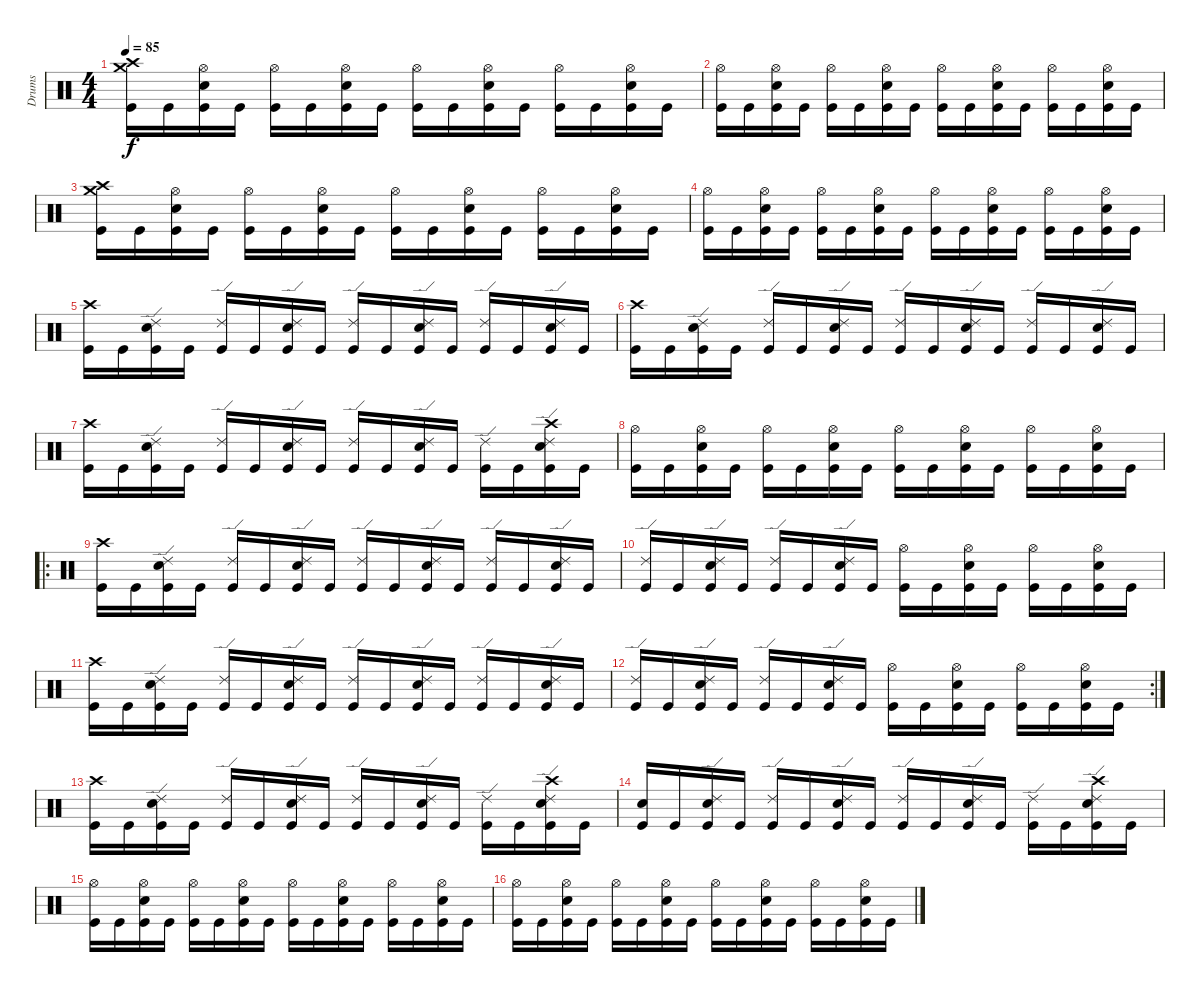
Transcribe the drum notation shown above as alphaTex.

\track ("Drums" "Drums") {instrument percussion}
\staff {score}
\articulation defaults
\ts (4 4)
\tempo 85
\clef neutral
\ks c
("Crash high (hit)" "Crash medium (hit)" "Kick (hit)").16{dy f} "Kick (hit)".16 ("Hi-Hat (open)" "Snare (hit) 2" "Kick (hit)").16 "Kick (hit)".16 ("Hi-Hat (open)" "Kick (hit)").16 "Kick (hit)".16 ("Hi-Hat (open)" "Snare (hit) 2" "Kick (hit)").16 "Kick (hit)".16 ("Hi-Hat (open)" "Kick (hit)").16 "Kick (hit)".16 ("Hi-Hat (open)" "Snare (hit) 2" "Kick (hit)").16 "Kick (hit)".16 ("Hi-Hat (open)" "Kick (hit)").16 "Kick (hit)".16 ("Hi-Hat (open)" "Snare (hit) 2" "Kick (hit)").16 "Kick (hit)".16 |
("Hi-Hat (open)" "Kick (hit)").16 "Kick (hit)".16 ("Hi-Hat (open)" "Snare (hit) 2" "Kick (hit)").16 "Kick (hit)".16 ("Hi-Hat (open)" "Kick (hit)").16 "Kick (hit)".16 ("Hi-Hat (open)" "Snare (hit) 2" "Kick (hit)").16 "Kick (hit)".16 ("Hi-Hat (open)" "Kick (hit)").16 "Kick (hit)".16 ("Hi-Hat (open)" "Snare (hit) 2" "Kick (hit)").16 "Kick (hit)".16 ("Hi-Hat (open)" "Kick (hit)").16 "Kick (hit)".16 ("Hi-Hat (open)" "Snare (hit) 2" "Kick (hit)").16 "Kick (hit)".16 |
("Crash high (hit)" "Crash medium (hit)" "Kick (hit)").16 "Kick (hit)".16 ("Hi-Hat (open)" "Snare (hit) 2" "Kick (hit)").16 "Kick (hit)".16 ("Hi-Hat (open)" "Kick (hit)").16 "Kick (hit)".16 ("Hi-Hat (open)" "Snare (hit) 2" "Kick (hit)").16 "Kick (hit)".16 ("Hi-Hat (open)" "Kick (hit)").16 "Kick (hit)".16 ("Hi-Hat (open)" "Snare (hit) 2" "Kick (hit)").16 "Kick (hit)".16 ("Hi-Hat (open)" "Kick (hit)").16 "Kick (hit)".16 ("Hi-Hat (open)" "Snare (hit) 2" "Kick (hit)").16 "Kick (hit)".16 |
("Hi-Hat (open)" "Kick (hit)").16 "Kick (hit)".16 ("Hi-Hat (open)" "Snare (hit) 2" "Kick (hit)").16 "Kick (hit)".16 ("Hi-Hat (open)" "Kick (hit)").16 "Kick (hit)".16 ("Hi-Hat (open)" "Snare (hit) 2" "Kick (hit)").16 "Kick (hit)".16 ("Hi-Hat (open)" "Kick (hit)").16 "Kick (hit)".16 ("Hi-Hat (open)" "Snare (hit) 2" "Kick (hit)").16 "Kick (hit)".16 ("Hi-Hat (open)" "Kick (hit)").16 "Kick (hit)".16 ("Hi-Hat (open)" "Snare (hit) 2" "Kick (hit)").16 "Kick (hit)".16 |
("Crash high (hit)" "Kick (hit)").16 "Kick (hit)".16 ("Ride (edge) 2" "Snare (hit) 2" "Kick (hit)").16 "Kick (hit)".16 ("Ride (edge) 2" "Kick (hit)").16 "Kick (hit)".16 ("Ride (edge) 2" "Snare (hit) 2" "Kick (hit)").16 "Kick (hit)".16 ("Ride (edge) 2" "Kick (hit)").16 "Kick (hit)".16 ("Ride (edge) 2" "Snare (hit) 2" "Kick (hit)").16 "Kick (hit)".16 ("Ride (edge) 2" "Kick (hit)").16 "Kick (hit)".16 ("Ride (edge) 2" "Snare (hit) 2" "Kick (hit)").16 "Kick (hit)".16 |
("Crash high (hit)" "Kick (hit)").16 "Kick (hit)".16 ("Ride (edge) 2" "Snare (hit) 2" "Kick (hit)").16 "Kick (hit)".16 ("Ride (edge) 2" "Kick (hit)").16 "Kick (hit)".16 ("Ride (edge) 2" "Snare (hit) 2" "Kick (hit)").16 "Kick (hit)".16 ("Ride (edge) 2" "Kick (hit)").16 "Kick (hit)".16 ("Ride (edge) 2" "Snare (hit) 2" "Kick (hit)").16 "Kick (hit)".16 ("Ride (edge) 2" "Kick (hit)").16 "Kick (hit)".16 ("Ride (edge) 2" "Snare (hit) 2" "Kick (hit)").16 "Kick (hit)".16 |
("Crash high (hit)" "Kick (hit)").16 "Kick (hit)".16 ("Ride (edge) 2" "Snare (hit) 2" "Kick (hit)").16 "Kick (hit)".16 ("Ride (edge) 2" "Kick (hit)").16 "Kick (hit)".16 ("Ride (edge) 2" "Snare (hit) 2" "Kick (hit)").16 "Kick (hit)".16 ("Ride (edge) 2" "Kick (hit)").16 "Kick (hit)".16 ("Ride (edge) 2" "Snare (hit) 2" "Kick (hit)").16 "Kick (hit)".16 ("Ride (edge) 2" "Kick (hit)").16 "Kick (hit)".16 ("Crash high (hit)" "Ride (edge) 2" "Snare (hit) 2" "Kick (hit)").16 "Kick (hit)".16 |
("Hi-Hat (open)" "Kick (hit)").16 "Kick (hit)".16 ("Hi-Hat (open)" "Snare (hit) 2" "Kick (hit)").16 "Kick (hit)".16 ("Hi-Hat (open)" "Kick (hit)").16 "Kick (hit)".16 ("Hi-Hat (open)" "Snare (hit) 2" "Kick (hit)").16 "Kick (hit)".16 ("Hi-Hat (open)" "Kick (hit)").16 "Kick (hit)".16 ("Hi-Hat (open)" "Snare (hit) 2" "Kick (hit)").16 "Kick (hit)".16 ("Hi-Hat (open)" "Kick (hit)").16 "Kick (hit)".16 ("Hi-Hat (open)" "Snare (hit) 2" "Kick (hit)").16 "Kick (hit)".16 |
\ro
("Crash high (hit)" "Kick (hit)").16 "Kick (hit)".16 ("Ride (edge) 2" "Snare (hit) 2" "Kick (hit)").16 "Kick (hit)".16 ("Ride (edge) 2" "Kick (hit)").16 "Kick (hit)".16 ("Ride (edge) 2" "Snare (hit) 2" "Kick (hit)").16 "Kick (hit)".16 ("Ride (edge) 2" "Kick (hit)").16 "Kick (hit)".16 ("Ride (edge) 2" "Snare (hit) 2" "Kick (hit)").16 "Kick (hit)".16 ("Ride (edge) 2" "Kick (hit)").16 "Kick (hit)".16 ("Ride (edge) 2" "Snare (hit) 2" "Kick (hit)").16 "Kick (hit)".16 |
("Ride (edge) 2" "Kick (hit)").16 "Kick (hit)".16 ("Ride (edge) 2" "Snare (hit) 2" "Kick (hit)").16 "Kick (hit)".16 ("Ride (edge) 2" "Kick (hit)").16 "Kick (hit)".16 ("Ride (edge) 2" "Snare (hit) 2" "Kick (hit)").16 "Kick (hit)".16 ("Hi-Hat (open)" "Kick (hit)").16 "Kick (hit)".16 ("Hi-Hat (open)" "Snare (hit) 2" "Kick (hit)").16 "Kick (hit)".16 ("Hi-Hat (open)" "Kick (hit)").16 "Kick (hit)".16 ("Hi-Hat (open)" "Snare (hit) 2" "Kick (hit)").16 "Kick (hit)".16 |
("Crash high (hit)" "Kick (hit)").16 "Kick (hit)".16 ("Ride (edge) 2" "Snare (hit) 2" "Kick (hit)").16 "Kick (hit)".16 ("Ride (edge) 2" "Kick (hit)").16 "Kick (hit)".16 ("Ride (edge) 2" "Snare (hit) 2" "Kick (hit)").16 "Kick (hit)".16 ("Ride (edge) 2" "Kick (hit)").16 "Kick (hit)".16 ("Ride (edge) 2" "Snare (hit) 2" "Kick (hit)").16 "Kick (hit)".16 ("Ride (edge) 2" "Kick (hit)").16 "Kick (hit)".16 ("Ride (edge) 2" "Snare (hit) 2" "Kick (hit)").16 "Kick (hit)".16 |
\rc 2
("Ride (edge) 2" "Kick (hit)").16 "Kick (hit)".16 ("Ride (edge) 2" "Snare (hit) 2" "Kick (hit)").16 "Kick (hit)".16 ("Ride (edge) 2" "Kick (hit)").16 "Kick (hit)".16 ("Ride (edge) 2" "Snare (hit) 2" "Kick (hit)").16 "Kick (hit)".16 ("Hi-Hat (open)" "Kick (hit)").16 "Kick (hit)".16 ("Hi-Hat (open)" "Snare (hit) 2" "Kick (hit)").16 "Kick (hit)".16 ("Hi-Hat (open)" "Kick (hit)").16 "Kick (hit)".16 ("Hi-Hat (open)" "Snare (hit) 2" "Kick (hit)").16 "Kick (hit)".16 |
("Crash high (hit)" "Kick (hit)").16 "Kick (hit)".16 ("Ride (edge) 2" "Snare (hit) 2" "Kick (hit)").16 "Kick (hit)".16 ("Ride (edge) 2" "Kick (hit)").16 "Kick (hit)".16 ("Ride (edge) 2" "Snare (hit) 2" "Kick (hit)").16 "Kick (hit)".16 ("Ride (edge) 2" "Kick (hit)").16 "Kick (hit)".16 ("Ride (edge) 2" "Snare (hit) 2" "Kick (hit)").16 "Kick (hit)".16 ("Ride (edge) 2" "Kick (hit)").16 "Kick (hit)".16 ("Crash high (hit)" "Ride (edge) 2" "Snare (hit) 2" "Kick (hit)").16 "Kick (hit)".16 |
("Snare (hit) 2" "Kick (hit)").16 "Kick (hit)".16 ("Ride (edge) 2" "Snare (hit) 2" "Kick (hit)").16 "Kick (hit)".16 ("Ride (edge) 2" "Kick (hit)").16 "Kick (hit)".16 ("Ride (edge) 2" "Snare (hit) 2" "Kick (hit)").16 "Kick (hit)".16 ("Ride (edge) 2" "Kick (hit)").16 "Kick (hit)".16 ("Ride (edge) 2" "Snare (hit) 2" "Kick (hit)").16 "Kick (hit)".16 ("Ride (edge) 2" "Kick (hit)").16 "Kick (hit)".16 ("Crash high (hit)" "Ride (edge) 2" "Snare (hit) 2" "Kick (hit)").16 "Kick (hit)".16 |
("Hi-Hat (open)" "Kick (hit)").16 "Kick (hit)".16 ("Hi-Hat (open)" "Snare (hit) 2" "Kick (hit)").16 "Kick (hit)".16 ("Hi-Hat (open)" "Kick (hit)").16 "Kick (hit)".16 ("Hi-Hat (open)" "Snare (hit) 2" "Kick (hit)").16 "Kick (hit)".16 ("Hi-Hat (open)" "Kick (hit)").16 "Kick (hit)".16 ("Hi-Hat (open)" "Snare (hit) 2" "Kick (hit)").16 "Kick (hit)".16 ("Hi-Hat (open)" "Kick (hit)").16 "Kick (hit)".16 ("Hi-Hat (open)" "Snare (hit) 2" "Kick (hit)").16 "Kick (hit)".16 |
("Hi-Hat (open)" "Kick (hit)").16 "Kick (hit)".16 ("Hi-Hat (open)" "Snare (hit) 2" "Kick (hit)").16 "Kick (hit)".16 ("Hi-Hat (open)" "Kick (hit)").16 "Kick (hit)".16 ("Hi-Hat (open)" "Snare (hit) 2" "Kick (hit)").16 "Kick (hit)".16 ("Hi-Hat (open)" "Kick (hit)").16 "Kick (hit)".16 ("Hi-Hat (open)" "Snare (hit) 2" "Kick (hit)").16 "Kick (hit)".16 ("Hi-Hat (open)" "Kick (hit)").16 "Kick (hit)".16 ("Hi-Hat (open)" "Snare (hit) 2" "Kick (hit)").16 "Kick (hit)".16
